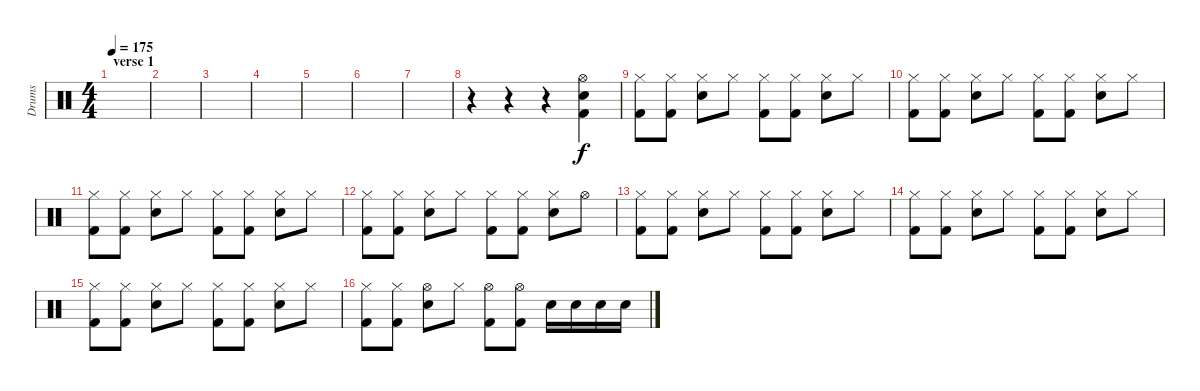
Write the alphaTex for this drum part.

\track ("Drums" "Drums") {instrument percussion}
\staff {score}
\articulation defaults
\ts (4 4)
\section ("" "verse 1")
\tempo 175
\clef neutral
\ks c
|
|
|
|
|
|
|
r.4 r.4 r.4 ("Hi-Hat (open)" "Snare (hit) 2" "Kick (hit) 2").4 |
("Hi-Hat (closed)" "Kick (hit) 2").8 ("Hi-Hat (closed)" "Kick (hit) 2").8 ("Hi-Hat (closed)" "Snare (hit) 2").8 "Hi-Hat (closed)".8 ("Hi-Hat (closed)" "Kick (hit) 2").8 ("Hi-Hat (closed)" "Kick (hit) 2").8 ("Hi-Hat (closed)" "Snare (hit) 2").8 "Hi-Hat (closed)".8 |
("Hi-Hat (closed)" "Kick (hit) 2").8 ("Hi-Hat (closed)" "Kick (hit) 2").8 ("Hi-Hat (closed)" "Snare (hit) 2").8 "Hi-Hat (closed)".8 ("Hi-Hat (closed)" "Kick (hit) 2").8 ("Hi-Hat (closed)" "Kick (hit) 2").8 ("Hi-Hat (closed)" "Snare (hit) 2").8 "Hi-Hat (closed)".8 |
("Hi-Hat (closed)" "Kick (hit) 2").8 ("Hi-Hat (closed)" "Kick (hit) 2").8 ("Hi-Hat (closed)" "Snare (hit) 2").8 "Hi-Hat (closed)".8 ("Hi-Hat (closed)" "Kick (hit) 2").8 ("Hi-Hat (closed)" "Kick (hit) 2").8 ("Hi-Hat (closed)" "Snare (hit) 2").8 "Hi-Hat (closed)".8 |
("Hi-Hat (closed)" "Kick (hit) 2").8 ("Hi-Hat (closed)" "Kick (hit) 2").8 ("Hi-Hat (closed)" "Snare (hit) 2").8 "Hi-Hat (closed)".8 ("Hi-Hat (closed)" "Kick (hit) 2").8 ("Hi-Hat (closed)" "Kick (hit) 2").8 ("Hi-Hat (closed)" "Snare (hit) 2").8 "Hi-Hat (open)".8 |
("Hi-Hat (closed)" "Kick (hit) 2").8 ("Hi-Hat (closed)" "Kick (hit) 2").8 ("Hi-Hat (closed)" "Snare (hit) 2").8 "Hi-Hat (closed)".8 ("Hi-Hat (closed)" "Kick (hit) 2").8 ("Hi-Hat (closed)" "Kick (hit) 2").8 ("Hi-Hat (closed)" "Snare (hit) 2").8 "Hi-Hat (closed)".8 |
("Hi-Hat (closed)" "Kick (hit) 2").8 ("Hi-Hat (closed)" "Kick (hit) 2").8 ("Hi-Hat (closed)" "Snare (hit) 2").8 "Hi-Hat (closed)".8 ("Hi-Hat (closed)" "Kick (hit) 2").8 ("Hi-Hat (closed)" "Kick (hit) 2").8 ("Hi-Hat (closed)" "Snare (hit) 2").8 "Hi-Hat (closed)".8 |
("Hi-Hat (closed)" "Kick (hit) 2").8 ("Hi-Hat (closed)" "Kick (hit) 2").8 ("Hi-Hat (closed)" "Snare (hit) 2").8 "Hi-Hat (closed)".8 ("Hi-Hat (closed)" "Kick (hit) 2").8 ("Hi-Hat (closed)" "Kick (hit) 2").8 ("Hi-Hat (closed)" "Snare (hit) 2").8 "Hi-Hat (closed)".8 |
("Hi-Hat (closed)" "Kick (hit) 2").8 ("Hi-Hat (closed)" "Kick (hit) 2").8 ("Hi-Hat (open)" "Snare (hit) 2").8 "Hi-Hat (closed)".8 ("Hi-Hat (open)" "Kick (hit) 2").8 ("Hi-Hat (open)" "Kick (hit) 2").8 "Snare (hit) 2".16 "Snare (hit) 2".16 "Snare (hit) 2".16 "Snare (hit) 2".16
